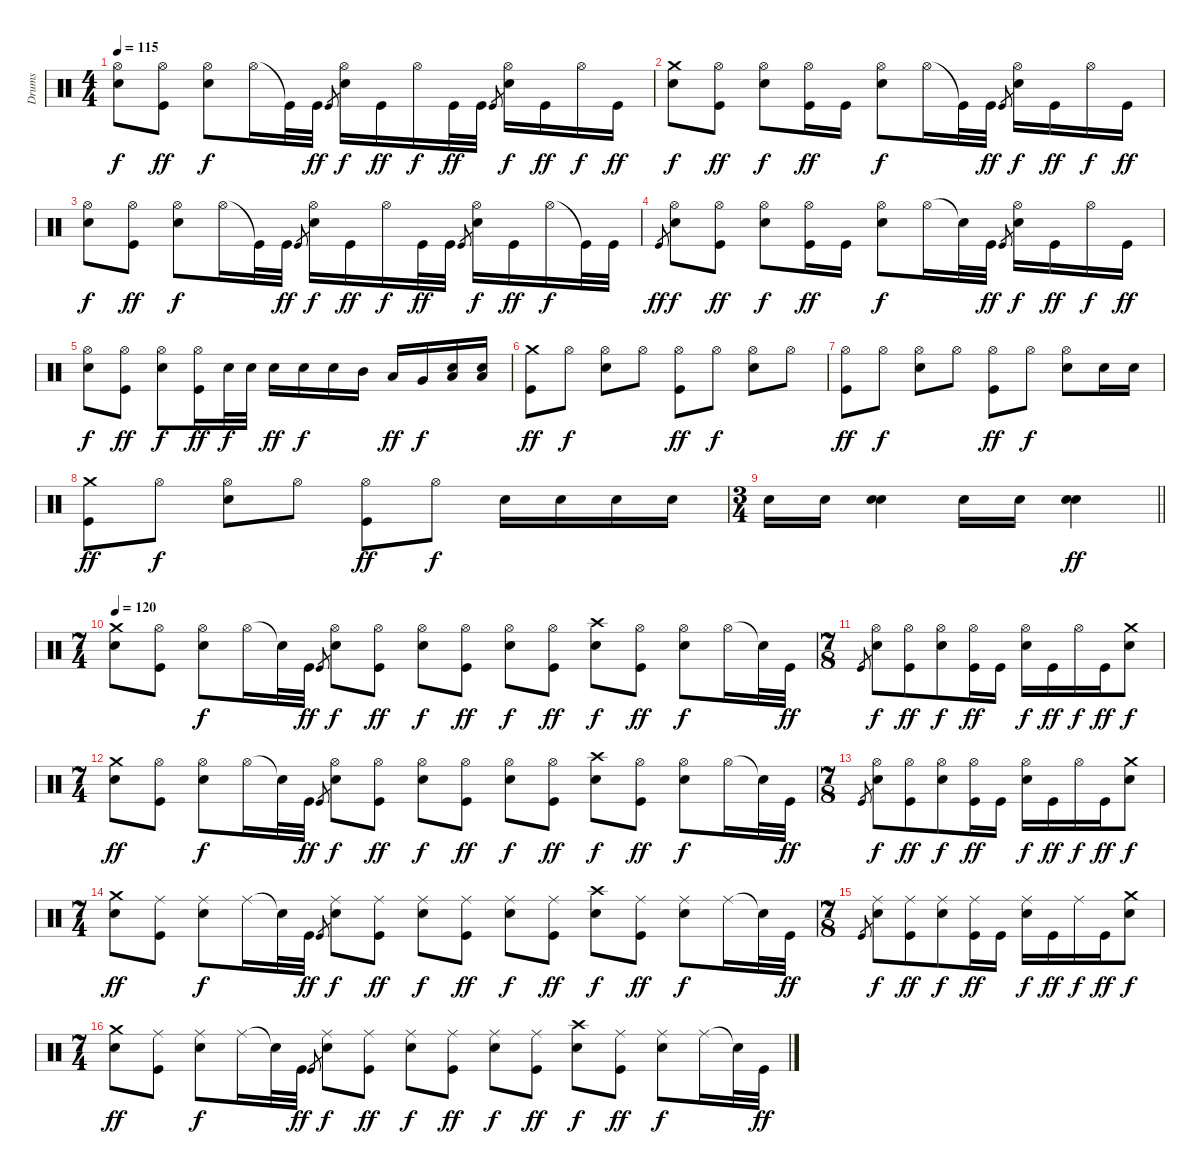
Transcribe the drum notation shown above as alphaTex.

\track ("Drums" "Drums") {instrument percussion}
\staff {score}
\articulation defaults
\ts (4 4)
\tempo 115
\clef neutral
\ks c
("Hi-Hat (open)" "Snare (hit) 2").8{dy f} ("Hi-Hat (open)" "Kick (hit)").8{dy ff} ("Hi-Hat (open)" "Snare (hit) 2").8{dy f} "Hi-Hat (open)".16 "Kick (hit)"{t}.32 "Kick (hit)".32{dy ff} "Kick (hit)".8{gr} ("Hi-Hat (open)" "Snare (hit) 2").16{dy f} "Kick (hit)".16{dy ff} "Hi-Hat (open)".16{dy f} "Kick (hit)".32{dy ff} "Kick (hit)".32 "Kick (hit)".8{gr} ("Hi-Hat (open)" "Snare (hit) 2").16{dy f} "Kick (hit)".16{dy ff} "Hi-Hat (open)".16{dy f} "Kick (hit)".16{dy ff} |
("Crash medium (hit)" "Snare (hit) 2").8{dy f} ("Hi-Hat (open)" "Kick (hit)").8{dy ff} ("Hi-Hat (open)" "Snare (hit) 2").8{dy f} ("Hi-Hat (open)" "Kick (hit)").16{dy ff} "Kick (hit)".16 ("Hi-Hat (open)" "Snare (hit) 2").8{dy f} "Hi-Hat (open)".16 "Kick (hit)"{t}.32 "Kick (hit)".32{dy ff} "Kick (hit)".8{gr} ("Hi-Hat (open)" "Snare (hit) 2").16{dy f} "Kick (hit)".16{dy ff} "Hi-Hat (open)".16{dy f} "Kick (hit)".16{dy ff} |
("Hi-Hat (open)" "Snare (hit) 2").8{dy f} ("Hi-Hat (open)" "Kick (hit)").8{dy ff} ("Hi-Hat (open)" "Snare (hit) 2").8{dy f} "Hi-Hat (open)".16 "Kick (hit)"{t}.32 "Kick (hit)".32{dy ff} "Kick (hit)".8{gr} ("Hi-Hat (open)" "Snare (hit) 2").16{dy f} "Kick (hit)".16{dy ff} "Hi-Hat (open)".16{dy f} "Kick (hit)".32{dy ff} "Kick (hit)".32 "Kick (hit)".8{gr} ("Hi-Hat (open)" "Snare (hit) 2").16{dy f} "Kick (hit)".16{dy ff} "Hi-Hat (open)".16{dy f} "Kick (hit)"{t}.32 "Kick (hit)".32 |
"Kick (hit)".8{gr dy ff} ("Hi-Hat (open)" "Snare (hit) 2").8{dy f} ("Hi-Hat (open)" "Kick (hit)").8{dy ff} ("Hi-Hat (open)" "Snare (hit) 2").8{dy f} ("Hi-Hat (open)" "Kick (hit)").16{dy ff} "Kick (hit)".16 ("Hi-Hat (open)" "Snare (hit) 2").8{dy f} "Hi-Hat (open)".16 "Snare (hit)"{t}.32 "Kick (hit)".32{dy ff} "Kick (hit)".8{gr} ("Hi-Hat (open)" "Snare (hit) 2").16{dy f} "Kick (hit)".16{dy ff} "Hi-Hat (open)".16{dy f} "Kick (hit)".16{dy ff} |
("Hi-Hat (open)" "Snare (hit) 2").8{dy f} ("Hi-Hat (open)" "Kick (hit)").8{dy ff} ("Hi-Hat (open)" "Snare (hit) 2").8{dy f} ("Hi-Hat (open)" "Kick (hit)").16{dy ff} "Snare (hit) 2".32{dy f} "Snare (hit) 2".32 "Snare (hit) 2".16{dy ff} "Snare (hit) 2".16{dy f} "Snare (hit) 2".16 "Mid Tom (hit)".16 "Low Tom (hit)".16{dy ff} "Very Low Tom (hit)".16{dy f} ("Low Floor Tom (hit)" "Snare (hit) 2").16 ("Low Floor Tom (hit)" "Snare (hit) 2").16 |
("Crash medium (hit)" "Kick (hit)").8{dy ff} "Hi-Hat (open)".8{dy f} ("Hi-Hat (open)" "Snare (hit) 2").8 "Hi-Hat (open)".8 ("Hi-Hat (open)" "Kick (hit)").8{dy ff} "Hi-Hat (open)".8{dy f} ("Hi-Hat (open)" "Snare (hit) 2").8 "Hi-Hat (open)".8 |
("Hi-Hat (open)" "Kick (hit)").8{dy ff} "Hi-Hat (open)".8{dy f} ("Hi-Hat (open)" "Snare (hit) 2").8 "Hi-Hat (open)".8 ("Hi-Hat (open)" "Kick (hit)").8{dy ff} "Hi-Hat (open)".8{dy f} ("Hi-Hat (open)" "Snare (hit) 2").8 "Snare (hit) 2".16 "Snare (hit) 2".16 |
("Crash medium (hit)" "Kick (hit)").8{dy ff} "Hi-Hat (open)".8{dy f} ("Hi-Hat (open)" "Snare (hit) 2").8 "Hi-Hat (open)".8 ("Hi-Hat (open)" "Kick (hit)").8{dy ff} "Hi-Hat (open)".8{dy f} "Snare (hit) 2".16 "Snare (hit) 2".16 "Snare (hit) 2".16 "Snare (hit) 2".16 |
\ts (3 4)
\barLineRight lightlight "Snare (hit) 2".16 "Snare (hit) 2".16
("Snare (hit) 2" "Snare (hit) 2").4 "Snare (hit) 2".16 "Snare (hit) 2".16 ("Snare (hit) 2" "Snare (hit) 2").4{dy ff} |
\ts (7 4)
\tempo 120
("Crash medium (hit)" "Snare (hit) 2").8 ("Hi-Hat (open)" "Kick (hit)").8 ("Hi-Hat (open)" "Snare (hit) 2").8{dy f} "Hi-Hat (open)".16 "Snare (hit)"{t}.32 "Kick (hit)".32{dy ff} "Kick (hit)".8{gr} ("Hi-Hat (open)" "Snare (hit) 2").8{dy f} ("Hi-Hat (open)" "Kick (hit)").8{dy ff} ("Hi-Hat (open)" "Snare (hit) 2").8{dy f} ("Hi-Hat (open)" "Kick (hit)").8{dy ff} ("Hi-Hat (open)" "Snare (hit) 2").8{dy f} ("Hi-Hat (open)" "Kick (hit)").8{dy ff} ("Crash high (hit)" "Snare (hit) 2").8{dy f} ("Hi-Hat (open)" "Kick (hit)").8{dy ff} ("Hi-Hat (open)" "Snare (hit) 2").8{dy f} "Hi-Hat (open)".16 "Snare (hit)"{t}.32 "Kick (hit)".32{dy ff} |
\ts (7 8)
"Kick (hit)".8{gr} ("Hi-Hat (open)" "Snare (hit) 2").8{dy f} ("Hi-Hat (open)" "Kick (hit)").8{dy ff} ("Hi-Hat (open)" "Snare (hit) 2").8{dy f} ("Hi-Hat (open)" "Kick (hit)").16{dy ff} "Kick (hit)".16 ("Hi-Hat (open)" "Snare (hit) 2").16{dy f} "Kick (hit)".16{dy ff} "Hi-Hat (open)".16{dy f} "Kick (hit)".16{dy ff} ("Crash medium (hit)" "Snare (hit) 2").8{dy f} |
\ts (7 4)
("Crash medium (hit)" "Snare (hit) 2").8{dy ff} ("Hi-Hat (open)" "Kick (hit)").8 ("Hi-Hat (open)" "Snare (hit) 2").8{dy f} "Hi-Hat (open)".16 "Snare (hit)"{t}.32 "Kick (hit)".32{dy ff} "Kick (hit)".8{gr} ("Hi-Hat (open)" "Snare (hit) 2").8{dy f} ("Hi-Hat (open)" "Kick (hit)").8{dy ff} ("Hi-Hat (open)" "Snare (hit) 2").8{dy f} ("Hi-Hat (open)" "Kick (hit)").8{dy ff} ("Hi-Hat (open)" "Snare (hit) 2").8{dy f} ("Hi-Hat (open)" "Kick (hit)").8{dy ff} ("Crash high (hit)" "Snare (hit) 2").8{dy f} ("Hi-Hat (open)" "Kick (hit)").8{dy ff} ("Hi-Hat (open)" "Snare (hit) 2").8{dy f} "Hi-Hat (open)".16 "Snare (hit)"{t}.32 "Kick (hit)".32{dy ff} |
\ts (7 8)
"Kick (hit)".8{gr} ("Hi-Hat (open)" "Snare (hit) 2").8{dy f} ("Hi-Hat (open)" "Kick (hit)").8{dy ff} ("Hi-Hat (open)" "Snare (hit) 2").8{dy f} ("Hi-Hat (open)" "Kick (hit)").16{dy ff} "Kick (hit)".16 ("Hi-Hat (open)" "Snare (hit) 2").16{dy f} "Kick (hit)".16{dy ff} "Hi-Hat (open)".16{dy f} "Kick (hit)".16{dy ff} ("Crash medium (hit)" "Snare (hit) 2").8{dy f} |
\ts (7 4)
("Crash medium (hit)" "Snare (hit) 2").8{dy ff} ("Ride (middle)" "Kick (hit)").8 ("Ride (middle)" "Snare (hit) 2").8{dy f} "Ride (middle)".16 "Snare (hit)"{t}.32 "Kick (hit)".32{dy ff} "Kick (hit)".8{gr} ("Ride (middle)" "Snare (hit) 2").8{dy f} ("Ride (middle)" "Kick (hit)").8{dy ff} ("Ride (middle)" "Snare (hit) 2").8{dy f} ("Ride (middle)" "Kick (hit)").8{dy ff} ("Ride (middle)" "Snare (hit) 2").8{dy f} ("Ride (middle)" "Kick (hit)").8{dy ff} ("Crash high (hit)" "Snare (hit) 2").8{dy f} ("Ride (middle)" "Kick (hit)").8{dy ff} ("Ride (middle)" "Snare (hit) 2").8{dy f} "Ride (middle)".16 "Snare (hit)"{t}.32 "Kick (hit)".32{dy ff} |
\ts (7 8)
"Kick (hit)".8{gr} ("Ride (middle)" "Snare (hit) 2").8{dy f} ("Ride (middle)" "Kick (hit)").8{dy ff} ("Ride (middle)" "Snare (hit) 2").8{dy f} ("Ride (middle)" "Kick (hit)").16{dy ff} "Kick (hit)".16 ("Ride (middle)" "Snare (hit) 2").16{dy f} "Kick (hit)".16{dy ff} "Ride (middle)".16{dy f} "Kick (hit)".16{dy ff} ("Crash medium (hit)" "Snare (hit) 2").8{dy f} |
\ts (7 4)
("Crash medium (hit)" "Snare (hit) 2").8{dy ff} ("Ride (middle)" "Kick (hit)").8 ("Ride (middle)" "Snare (hit) 2").8{dy f} "Ride (middle)".16 "Snare (hit)"{t}.32 "Kick (hit)".32{dy ff} "Kick (hit)".8{gr} ("Ride (middle)" "Snare (hit) 2").8{dy f} ("Ride (middle)" "Kick (hit)").8{dy ff} ("Ride (middle)" "Snare (hit) 2").8{dy f} ("Ride (middle)" "Kick (hit)").8{dy ff} ("Ride (middle)" "Snare (hit) 2").8{dy f} ("Ride (middle)" "Kick (hit)").8{dy ff} ("Crash high (hit)" "Snare (hit) 2").8{dy f} ("Ride (middle)" "Kick (hit)").8{dy ff} ("Ride (middle)" "Snare (hit) 2").8{dy f} "Ride (middle)".16 "Snare (hit)"{t}.32 "Kick (hit)".32{dy ff}
